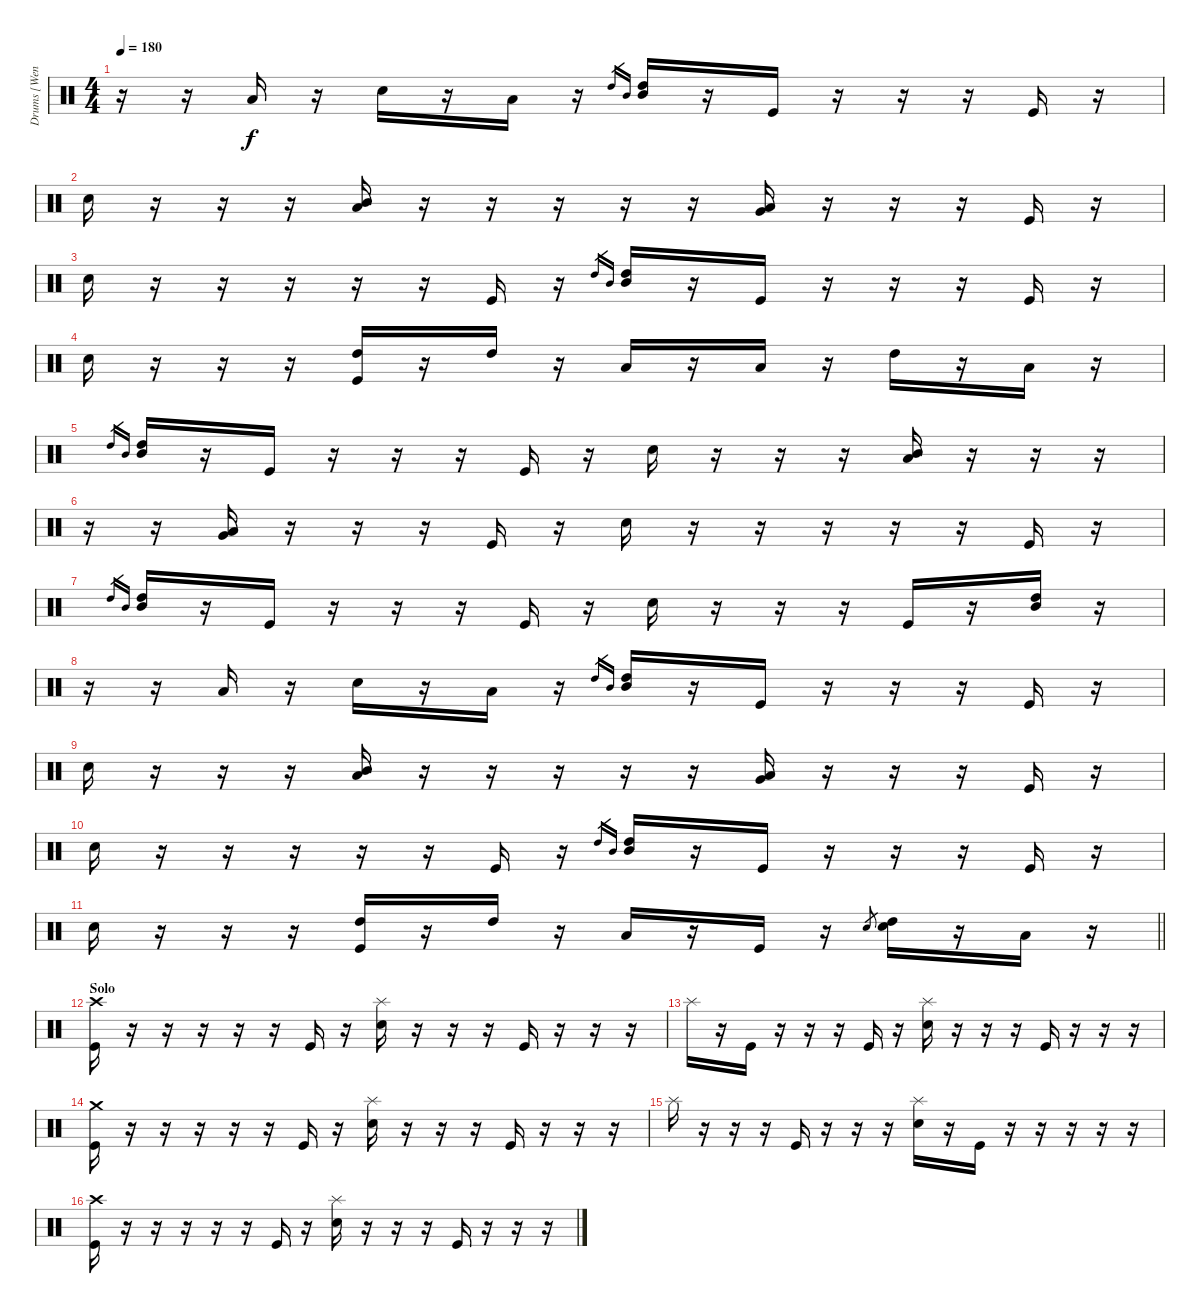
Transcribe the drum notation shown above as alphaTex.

\track ("Drums [Wengren]" "Drums [Wen") {instrument percussion}
\staff {score}
\articulation defaults
\ts (4 4)
\tempo 180
\clef neutral
\ks c
r.16{dy f} r.16 "Low Floor Tom (hit)".16 r.16 "Electric Snare (hit)".16 r.16 "Low Floor Tom (hit)".16 r.16 "High Tom (hit)".16{gr} "Mid Tom (hit)".16{gr} ("High Tom (hit)" "Mid Tom (hit)").16 r.16 "Kick (hit)".16 r.16 r.16 r.16 "Kick (hit)".16 r.16 |
"Electric Snare (hit)".16 r.16 r.16 r.16 ("Mid Tom (hit)" "Low Tom (hit)").16 r.16 r.16 r.16 r.16 r.16 ("Very Low Tom (hit)" "Low Floor Tom (hit)").16 r.16 r.16 r.16 "Kick (hit)".16 r.16 |
"Electric Snare (hit)".16 r.16 r.16 r.16 r.16 r.16 "Kick (hit)".16 r.16 "High Tom (hit)".16{gr} "Mid Tom (hit)".16{gr} ("High Tom (hit)" "Mid Tom (hit)").16 r.16 "Kick (hit)".16 r.16 r.16 r.16 "Kick (hit)".16 r.16 |
"Electric Snare (hit)".16 r.16 r.16 r.16 ("High Tom (hit)" "Kick (hit)").16 r.16 "High Tom (hit)".16 r.16 "Low Tom (hit)".16 r.16 "Low Tom (hit)".16 r.16 "High Tom (hit)".16 r.16 "Low Floor Tom (hit)".16 r.16 |
"High Tom (hit)".16{gr} "Mid Tom (hit)".16{gr} ("High Tom (hit)" "Mid Tom (hit)").16 r.16 "Kick (hit)".16 r.16 r.16 r.16 "Kick (hit)".16 r.16 "Electric Snare (hit)".16 r.16 r.16 r.16 ("Mid Tom (hit)" "Low Tom (hit)").16 r.16 r.16 r.16 |
r.16 r.16 ("Very Low Tom (hit)" "Low Floor Tom (hit)").16 r.16 r.16 r.16 "Kick (hit)".16 r.16 "Electric Snare (hit)".16 r.16 r.16 r.16 r.16 r.16 "Kick (hit)".16 r.16 |
"High Tom (hit)".16{gr} "Mid Tom (hit)".16{gr} ("High Tom (hit)" "Mid Tom (hit)").16 r.16 "Kick (hit)".16 r.16 r.16 r.16 "Kick (hit)".16 r.16 "Electric Snare (hit)".16 r.16 r.16 r.16 "Kick (hit)".16 r.16 ("High Tom (hit)" "Mid Tom (hit)").16 r.16 |
r.16 r.16 "Low Floor Tom (hit)".16 r.16 "Electric Snare (hit)".16 r.16 "Low Floor Tom (hit)".16 r.16 "High Tom (hit)".16{gr} "Mid Tom (hit)".16{gr} ("High Tom (hit)" "Mid Tom (hit)").16 r.16 "Kick (hit)".16 r.16 r.16 r.16 "Kick (hit)".16 r.16 |
"Electric Snare (hit)".16 r.16 r.16 r.16 ("Mid Tom (hit)" "Low Tom (hit)").16 r.16 r.16 r.16 r.16 r.16 ("Very Low Tom (hit)" "Low Floor Tom (hit)").16 r.16 r.16 r.16 "Kick (hit)".16 r.16 |
"Electric Snare (hit)".16 r.16 r.16 r.16 r.16 r.16 "Kick (hit)".16 r.16 "High Tom (hit)".16{gr} "Mid Tom (hit)".16{gr} ("High Tom (hit)" "Mid Tom (hit)").16 r.16 "Kick (hit)".16 r.16 r.16 r.16 "Kick (hit)".16 r.16 |
\barLineRight lightlight "Electric Snare (hit)".16
r.16 r.16 r.16 ("High Tom (hit)" "Kick (hit)").16 r.16 "High Tom (hit)".16 r.16 "Low Tom (hit)".16 r.16 "Kick (hit)".16 r.16 "Electric Snare (hit)".8{gr} ("High Tom (hit)" "Electric Snare (hit)").16 r.16 "Low Floor Tom (hit)".16 r.16 |
\section ("" "Solo")
("Crash high (hit)" "Kick (hit)").16 r.16 r.16 r.16 r.16 r.16 "Kick (hit)".16 r.16 ("Splash (hit)" "Electric Snare (hit)").16 r.16 r.16 r.16 "Kick (hit)".16 r.16 r.16 r.16 |
"Splash (hit)".16 r.16 "Kick (hit)".16 r.16 r.16 r.16 "Kick (hit)".16 r.16 ("Splash (hit)" "Electric Snare (hit)").16 r.16 r.16 r.16 "Kick (hit)".16 r.16 r.16 r.16 |
("Crash medium (hit)" "Kick (hit)").16 r.16 r.16 r.16 r.16 r.16 "Kick (hit)".16 r.16 ("Splash (hit)" "Electric Snare (hit)").16 r.16 r.16 r.16 "Kick (hit)".16 r.16 r.16 r.16 |
"Splash (hit)".16 r.16 r.16 r.16 "Kick (hit)".16 r.16 r.16 r.16 ("Splash (hit)" "Electric Snare (hit)").16 r.16 "Kick (hit)".16 r.16 r.16 r.16 r.16 r.16 |
("Crash high (hit)" "Kick (hit)").16 r.16 r.16 r.16 r.16 r.16 "Kick (hit)".16 r.16 ("Splash (hit)" "Electric Snare (hit)").16 r.16 r.16 r.16 "Kick (hit)".16 r.16 r.16 r.16
